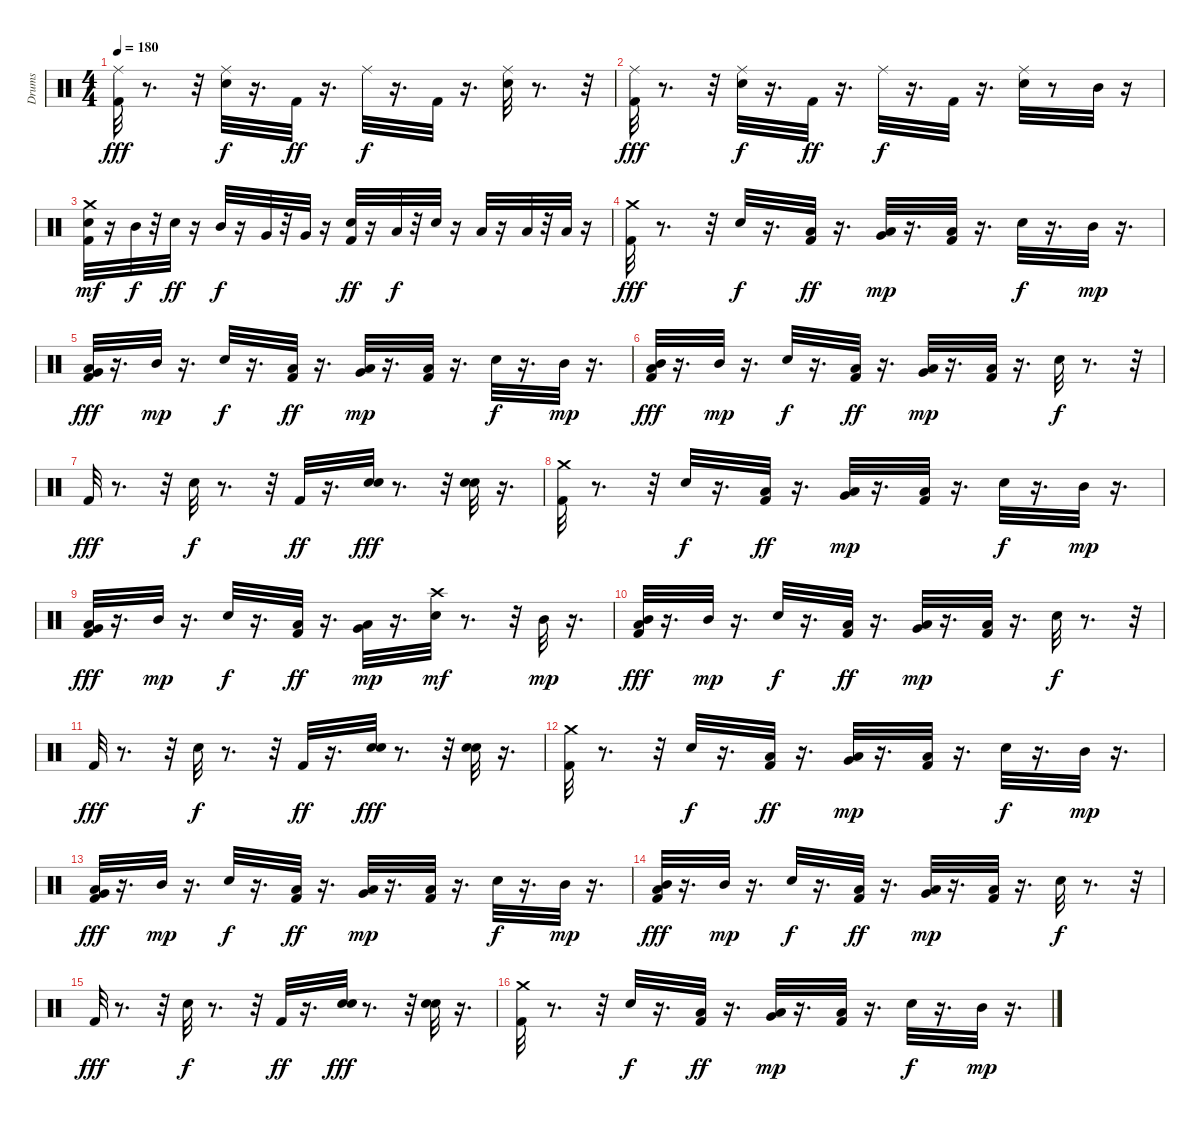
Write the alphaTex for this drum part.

\track ("Drums" "Drums") {instrument percussion}
\staff {score}
\articulation defaults
\ts (4 4)
\tempo 180
\clef neutral
\ks c
("Ride (middle)" "Kick (hit) 2").32{dy fff} r.8{d} r.32 ("Ride (middle)" "Snare (hit) 2").32{dy f} r.16{d} "Kick (hit) 2".32{dy ff} r.16{d} "Ride (middle)".32{dy f} r.16{d} "Kick (hit) 2".32 r.16{d} ("Ride (middle)" "Snare (hit) 2").32 r.8{d} r.32 |
("Ride (middle)" "Kick (hit) 2").32{dy fff} r.8{d} r.32 ("Ride (middle)" "Snare (hit) 2").32{dy f} r.16{d} "Kick (hit) 2".32{dy ff} r.16{d} "Ride (middle)".32{dy f} r.16{d} "Kick (hit) 2".32 r.16{d} ("Ride (middle)" "Snare (hit) 2").32 r.8 "Mid Tom (hit)".32 r.16 |
("Kick (hit) 2" "Snare (hit) 2" "Crash medium (hit)").32{dy mf} r.16 "Mid Tom (hit)".32{dy f} r.32 "Snare (hit) 2".32{dy ff} r.16 "Mid Tom (hit)".32{dy f} r.16 "Very Low Tom (hit)".32 r.32 "Very Low Tom (hit)".32 r.16 ("Kick (hit) 2" "Snare (hit) 2").32{dy ff} r.16 "Low Tom (hit)".32{dy f} r.32 "Snare (hit) 2".32 r.16 "Low Tom (hit)".32 r.16 "Low Floor Tom (hit)".32 r.32 "Low Floor Tom (hit)".32 r.16 |
("Kick (hit) 2" "Crash medium (hit)").32{dy fff} r.8{d} r.32 "Snare (hit) 2".32{dy f} r.16{d} ("Low Tom (hit)" "Kick (hit) 2").32{dy ff} r.16{d} ("Very Low Tom (hit)" "Low Floor Tom (hit)").32{dy mp} r.16{d} ("Low Tom (hit)" "Kick (hit) 2").32 r.16{d} "Snare (hit) 2".32{dy f} r.16{d} "Mid Tom (hit)".32{dy mp} r.16{d} |
("Low Tom (hit)" "Very Low Tom (hit)" "Kick (hit) 2").32{dy fff} r.16{d} "Mid Tom (hit)".32{dy mp} r.16{d} "Snare (hit) 2".32{dy f} r.16{d} ("Low Tom (hit)" "Kick (hit) 2").32{dy ff} r.16{d} ("Very Low Tom (hit)" "Low Floor Tom (hit)").32{dy mp} r.16{d} ("Low Tom (hit)" "Kick (hit) 2").32 r.16{d} "Snare (hit) 2".32{dy f} r.16{d} "Mid Tom (hit)".32{dy mp} r.16{d} |
("Mid Tom (hit)" "Low Tom (hit)" "Kick (hit) 2").32{dy fff} r.16{d} "Mid Tom (hit)".32{dy mp} r.16{d} "Snare (hit) 2".32{dy f} r.16{d} ("Low Tom (hit)" "Kick (hit) 2").32{dy ff} r.16{d} ("Very Low Tom (hit)" "Low Floor Tom (hit)").32{dy mp} r.16{d} ("Low Tom (hit)" "Kick (hit) 2").32 r.16{d} "Snare (hit) 2".32{dy f} r.8{d} r.32 |
"Kick (hit) 2".32{dy fff} r.8{d} r.32 "Snare (hit) 2".32{dy f} r.8{d} r.32 "Kick (hit) 2".32{dy ff} r.16{d} ("Electric Snare (hit)" "Snare (hit) 2").32{dy fff} r.8{d} r.32 ("Electric Snare (hit)" "Snare (hit) 2").32 r.16{d} |
("Kick (hit) 2" "Crash medium (hit)").32 r.8{d} r.32 "Snare (hit) 2".32{dy f} r.16{d} ("Low Tom (hit)" "Kick (hit) 2").32{dy ff} r.16{d} ("Very Low Tom (hit)" "Low Floor Tom (hit)").32{dy mp} r.16{d} ("Low Tom (hit)" "Kick (hit) 2").32 r.16{d} "Snare (hit) 2".32{dy f} r.16{d} "Mid Tom (hit)".32{dy mp} r.16{d} |
("Low Tom (hit)" "Very Low Tom (hit)" "Kick (hit) 2").32{dy fff} r.16{d} "Mid Tom (hit)".32{dy mp} r.16{d} "Snare (hit) 2".32{dy f} r.16{d} ("Low Tom (hit)" "Kick (hit) 2").32{dy ff} r.16{d} ("Very Low Tom (hit)" "Low Floor Tom (hit)").32{dy mp} r.16{d} ("Crash high (hit)" "Snare (hit) 2").32{dy mf} r.8{d} r.32 "Mid Tom (hit)".32{dy mp} r.16{d} |
("Mid Tom (hit)" "Low Tom (hit)" "Kick (hit) 2").32{dy fff} r.16{d} "Mid Tom (hit)".32{dy mp} r.16{d} "Snare (hit) 2".32{dy f} r.16{d} ("Low Tom (hit)" "Kick (hit) 2").32{dy ff} r.16{d} ("Very Low Tom (hit)" "Low Floor Tom (hit)").32{dy mp} r.16{d} ("Low Tom (hit)" "Kick (hit) 2").32 r.16{d} "Snare (hit) 2".32{dy f} r.8{d} r.32 |
"Kick (hit) 2".32{dy fff} r.8{d} r.32 "Snare (hit) 2".32{dy f} r.8{d} r.32 "Kick (hit) 2".32{dy ff} r.16{d} ("Electric Snare (hit)" "Snare (hit) 2").32{dy fff} r.8{d} r.32 ("Electric Snare (hit)" "Snare (hit) 2").32 r.16{d} |
("Kick (hit) 2" "Crash medium (hit)").32 r.8{d} r.32 "Snare (hit) 2".32{dy f} r.16{d} ("Low Tom (hit)" "Kick (hit) 2").32{dy ff} r.16{d} ("Very Low Tom (hit)" "Low Floor Tom (hit)").32{dy mp} r.16{d} ("Low Tom (hit)" "Kick (hit) 2").32 r.16{d} "Snare (hit) 2".32{dy f} r.16{d} "Mid Tom (hit)".32{dy mp} r.16{d} |
("Low Tom (hit)" "Very Low Tom (hit)" "Kick (hit) 2").32{dy fff} r.16{d} "Mid Tom (hit)".32{dy mp} r.16{d} "Snare (hit) 2".32{dy f} r.16{d} ("Low Tom (hit)" "Kick (hit) 2").32{dy ff} r.16{d} ("Very Low Tom (hit)" "Low Floor Tom (hit)").32{dy mp} r.16{d} ("Low Tom (hit)" "Kick (hit) 2").32 r.16{d} "Snare (hit) 2".32{dy f} r.16{d} "Mid Tom (hit)".32{dy mp} r.16{d} |
("Mid Tom (hit)" "Low Tom (hit)" "Kick (hit) 2").32{dy fff} r.16{d} "Mid Tom (hit)".32{dy mp} r.16{d} "Snare (hit) 2".32{dy f} r.16{d} ("Low Tom (hit)" "Kick (hit) 2").32{dy ff} r.16{d} ("Very Low Tom (hit)" "Low Floor Tom (hit)").32{dy mp} r.16{d} ("Low Tom (hit)" "Kick (hit) 2").32 r.16{d} "Snare (hit) 2".32{dy f} r.8{d} r.32 |
"Kick (hit) 2".32{dy fff} r.8{d} r.32 "Snare (hit) 2".32{dy f} r.8{d} r.32 "Kick (hit) 2".32{dy ff} r.16{d} ("Electric Snare (hit)" "Snare (hit) 2").32{dy fff} r.8{d} r.32 ("Electric Snare (hit)" "Snare (hit) 2").32 r.16{d} |
("Kick (hit) 2" "Crash medium (hit)").32 r.8{d} r.32 "Snare (hit) 2".32{dy f} r.16{d} ("Low Tom (hit)" "Kick (hit) 2").32{dy ff} r.16{d} ("Very Low Tom (hit)" "Low Floor Tom (hit)").32{dy mp} r.16{d} ("Low Tom (hit)" "Kick (hit) 2").32 r.16{d} "Snare (hit) 2".32{dy f} r.16{d} "Mid Tom (hit)".32{dy mp} r.16{d}
